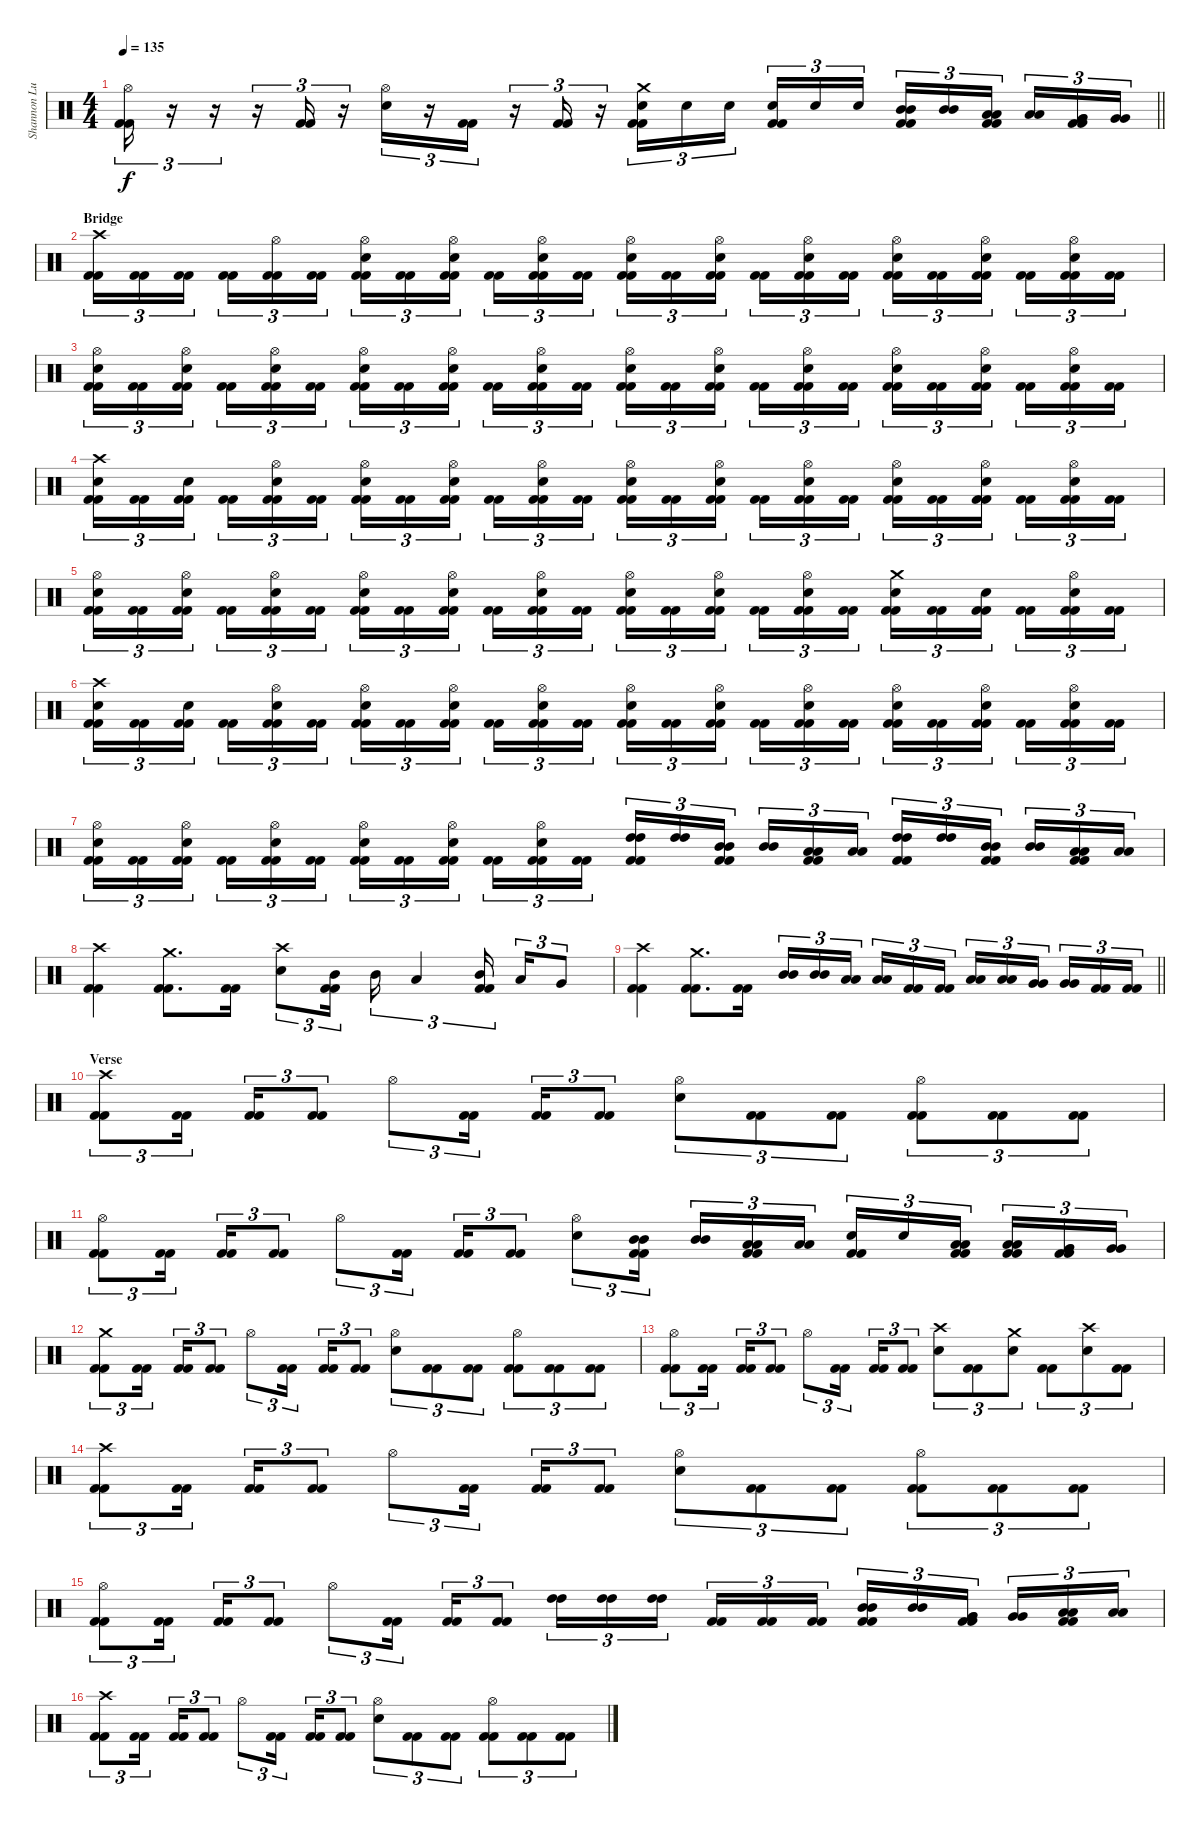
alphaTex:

\track ("Shannon Lucas" "Shannon Lu") {instrument percussion}
\staff {score}
\articulation defaults
\ts (4 4)
\tempo 135
\clef neutral
\barLineRight lightlight
\ks c
("Hi-Hat (open)" "Kick (hit) 2" "Kick (hit) 2").16{tu (3 2) dy f} r.16{tu (3 2)} r.16{tu (3 2)} r.16{tu (3 2)} ("Kick (hit) 2" "Kick (hit) 2").16{tu (3 2)} r.16{tu (3 2)} ("Hi-Hat (open)" "Electric Snare (hit)").16{tu (3 2)} r.16{tu (3 2)} ("Kick (hit) 2" "Kick (hit) 2").16{tu (3 2)} r.16{tu (3 2)} ("Kick (hit) 2" "Kick (hit) 2").16{tu (3 2)} r.16{tu (3 2)} ("Crash medium (hit)" "Electric Snare (hit)" "Kick (hit) 2" "Kick (hit) 2").16{tu (3 2)} "Electric Snare (hit)".16{tu (3 2)} "Electric Snare (hit)".16{tu (3 2) beam splitsecondary} ("Electric Snare (hit)" "Kick (hit) 2" "Kick (hit) 2").16{tu (3 2)} "Electric Snare (hit)".16{tu (3 2)} "Electric Snare (hit)".16{tu (3 2)} ("Mid Tom (hit)" "Mid Tom (hit)" "Kick (hit) 2" "Kick (hit) 2").16{tu (3 2)} ("Mid Tom (hit)" "Mid Tom (hit)").16{tu (3 2)} ("Low Tom (hit)" "Low Tom (hit)" "Kick (hit) 2" "Kick (hit) 2").16{tu (3 2) beam splitsecondary} ("Low Tom (hit)" "Low Tom (hit)").16{tu (3 2)} ("Very Low Tom (hit)" "Very Low Tom (hit)" "Kick (hit) 2" "Kick (hit) 2").16{tu (3 2)} ("Very Low Tom (hit)" "Very Low Tom (hit)").16{tu (3 2)} |
\section ("" "Bridge")
("Crash high (hit)" "Kick (hit) 2" "Kick (hit) 2").16{tu (3 2)} ("Kick (hit) 2" "Kick (hit) 2").16{tu (3 2)} ("Kick (hit) 2" "Kick (hit) 2").16{tu (3 2) beam splitsecondary} ("Kick (hit) 2" "Kick (hit) 2").16{tu (3 2)} ("Hi-Hat (open)" "Kick (hit) 2" "Kick (hit) 2").16{tu (3 2)} ("Kick (hit) 2" "Kick (hit) 2").16{tu (3 2)} ("Hi-Hat (open)" "Electric Snare (hit)" "Kick (hit) 2" "Kick (hit) 2").16{tu (3 2)} ("Kick (hit) 2" "Kick (hit) 2").16{tu (3 2)} ("Hi-Hat (open)" "Electric Snare (hit)" "Kick (hit) 2" "Kick (hit) 2").16{tu (3 2) beam splitsecondary} ("Kick (hit) 2" "Kick (hit) 2").16{tu (3 2)} ("Hi-Hat (open)" "Electric Snare (hit)" "Kick (hit) 2" "Kick (hit) 2").16{tu (3 2)} ("Kick (hit) 2" "Kick (hit) 2").16{tu (3 2)} ("Hi-Hat (open)" "Electric Snare (hit)" "Kick (hit) 2" "Kick (hit) 2").16{tu (3 2)} ("Kick (hit) 2" "Kick (hit) 2").16{tu (3 2)} ("Hi-Hat (open)" "Electric Snare (hit)" "Kick (hit) 2" "Kick (hit) 2").16{tu (3 2) beam splitsecondary} ("Kick (hit) 2" "Kick (hit) 2").16{tu (3 2)} ("Hi-Hat (open)" "Electric Snare (hit)" "Kick (hit) 2" "Kick (hit) 2").16{tu (3 2)} ("Kick (hit) 2" "Kick (hit) 2").16{tu (3 2)} ("Hi-Hat (open)" "Electric Snare (hit)" "Kick (hit) 2" "Kick (hit) 2").16{tu (3 2)} ("Kick (hit) 2" "Kick (hit) 2").16{tu (3 2)} ("Hi-Hat (open)" "Electric Snare (hit)" "Kick (hit) 2" "Kick (hit) 2").16{tu (3 2) beam splitsecondary} ("Kick (hit) 2" "Kick (hit) 2").16{tu (3 2)} ("Hi-Hat (open)" "Electric Snare (hit)" "Kick (hit) 2" "Kick (hit) 2").16{tu (3 2)} ("Kick (hit) 2" "Kick (hit) 2").16{tu (3 2)} |
("Hi-Hat (open)" "Electric Snare (hit)" "Kick (hit) 2" "Kick (hit) 2").16{tu (3 2)} ("Kick (hit) 2" "Kick (hit) 2").16{tu (3 2)} ("Hi-Hat (open)" "Electric Snare (hit)" "Kick (hit) 2" "Kick (hit) 2").16{tu (3 2) beam splitsecondary} ("Kick (hit) 2" "Kick (hit) 2").16{tu (3 2)} ("Hi-Hat (open)" "Electric Snare (hit)" "Kick (hit) 2" "Kick (hit) 2").16{tu (3 2)} ("Kick (hit) 2" "Kick (hit) 2").16{tu (3 2)} ("Hi-Hat (open)" "Electric Snare (hit)" "Kick (hit) 2" "Kick (hit) 2").16{tu (3 2)} ("Kick (hit) 2" "Kick (hit) 2").16{tu (3 2)} ("Hi-Hat (open)" "Electric Snare (hit)" "Kick (hit) 2" "Kick (hit) 2").16{tu (3 2) beam splitsecondary} ("Kick (hit) 2" "Kick (hit) 2").16{tu (3 2)} ("Hi-Hat (open)" "Electric Snare (hit)" "Kick (hit) 2" "Kick (hit) 2").16{tu (3 2)} ("Kick (hit) 2" "Kick (hit) 2").16{tu (3 2)} ("Hi-Hat (open)" "Electric Snare (hit)" "Kick (hit) 2" "Kick (hit) 2").16{tu (3 2)} ("Kick (hit) 2" "Kick (hit) 2").16{tu (3 2)} ("Hi-Hat (open)" "Electric Snare (hit)" "Kick (hit) 2" "Kick (hit) 2").16{tu (3 2) beam splitsecondary} ("Kick (hit) 2" "Kick (hit) 2").16{tu (3 2)} ("Hi-Hat (open)" "Electric Snare (hit)" "Kick (hit) 2" "Kick (hit) 2").16{tu (3 2)} ("Kick (hit) 2" "Kick (hit) 2").16{tu (3 2)} ("Hi-Hat (open)" "Electric Snare (hit)" "Kick (hit) 2" "Kick (hit) 2").16{tu (3 2)} ("Kick (hit) 2" "Kick (hit) 2").16{tu (3 2)} ("Hi-Hat (open)" "Electric Snare (hit)" "Kick (hit) 2" "Kick (hit) 2").16{tu (3 2) beam splitsecondary} ("Kick (hit) 2" "Kick (hit) 2").16{tu (3 2)} ("Hi-Hat (open)" "Electric Snare (hit)" "Kick (hit) 2" "Kick (hit) 2").16{tu (3 2)} ("Kick (hit) 2" "Kick (hit) 2").16{tu (3 2)} |
("Crash high (hit)" "Electric Snare (hit)" "Kick (hit) 2" "Kick (hit) 2").16{tu (3 2)} ("Kick (hit) 2" "Kick (hit) 2").16{tu (3 2)} ("Electric Snare (hit)" "Kick (hit) 2" "Kick (hit) 2").16{tu (3 2) beam splitsecondary} ("Kick (hit) 2" "Kick (hit) 2").16{tu (3 2)} ("Hi-Hat (open)" "Electric Snare (hit)" "Kick (hit) 2" "Kick (hit) 2").16{tu (3 2)} ("Kick (hit) 2" "Kick (hit) 2").16{tu (3 2)} ("Hi-Hat (open)" "Electric Snare (hit)" "Kick (hit) 2" "Kick (hit) 2").16{tu (3 2)} ("Kick (hit) 2" "Kick (hit) 2").16{tu (3 2)} ("Hi-Hat (open)" "Electric Snare (hit)" "Kick (hit) 2" "Kick (hit) 2").16{tu (3 2) beam splitsecondary} ("Kick (hit) 2" "Kick (hit) 2").16{tu (3 2)} ("Hi-Hat (open)" "Electric Snare (hit)" "Kick (hit) 2" "Kick (hit) 2").16{tu (3 2)} ("Kick (hit) 2" "Kick (hit) 2").16{tu (3 2)} ("Hi-Hat (open)" "Electric Snare (hit)" "Kick (hit) 2" "Kick (hit) 2").16{tu (3 2)} ("Kick (hit) 2" "Kick (hit) 2").16{tu (3 2)} ("Hi-Hat (open)" "Electric Snare (hit)" "Kick (hit) 2" "Kick (hit) 2").16{tu (3 2) beam splitsecondary} ("Kick (hit) 2" "Kick (hit) 2").16{tu (3 2)} ("Hi-Hat (open)" "Electric Snare (hit)" "Kick (hit) 2" "Kick (hit) 2").16{tu (3 2)} ("Kick (hit) 2" "Kick (hit) 2").16{tu (3 2)} ("Hi-Hat (open)" "Electric Snare (hit)" "Kick (hit) 2" "Kick (hit) 2").16{tu (3 2)} ("Kick (hit) 2" "Kick (hit) 2").16{tu (3 2)} ("Hi-Hat (open)" "Electric Snare (hit)" "Kick (hit) 2" "Kick (hit) 2").16{tu (3 2) beam splitsecondary} ("Kick (hit) 2" "Kick (hit) 2").16{tu (3 2)} ("Hi-Hat (open)" "Electric Snare (hit)" "Kick (hit) 2" "Kick (hit) 2").16{tu (3 2)} ("Kick (hit) 2" "Kick (hit) 2").16{tu (3 2)} |
("Hi-Hat (open)" "Electric Snare (hit)" "Kick (hit) 2" "Kick (hit) 2").16{tu (3 2)} ("Kick (hit) 2" "Kick (hit) 2").16{tu (3 2)} ("Hi-Hat (open)" "Electric Snare (hit)" "Kick (hit) 2" "Kick (hit) 2").16{tu (3 2) beam splitsecondary} ("Kick (hit) 2" "Kick (hit) 2").16{tu (3 2)} ("Hi-Hat (open)" "Electric Snare (hit)" "Kick (hit) 2" "Kick (hit) 2").16{tu (3 2)} ("Kick (hit) 2" "Kick (hit) 2").16{tu (3 2)} ("Hi-Hat (open)" "Electric Snare (hit)" "Kick (hit) 2" "Kick (hit) 2").16{tu (3 2)} ("Kick (hit) 2" "Kick (hit) 2").16{tu (3 2)} ("Hi-Hat (open)" "Electric Snare (hit)" "Kick (hit) 2" "Kick (hit) 2").16{tu (3 2) beam splitsecondary} ("Kick (hit) 2" "Kick (hit) 2").16{tu (3 2)} ("Hi-Hat (open)" "Electric Snare (hit)" "Kick (hit) 2" "Kick (hit) 2").16{tu (3 2)} ("Kick (hit) 2" "Kick (hit) 2").16{tu (3 2)} ("Hi-Hat (open)" "Electric Snare (hit)" "Kick (hit) 2" "Kick (hit) 2").16{tu (3 2)} ("Kick (hit) 2" "Kick (hit) 2").16{tu (3 2)} ("Hi-Hat (open)" "Electric Snare (hit)" "Kick (hit) 2" "Kick (hit) 2").16{tu (3 2) beam splitsecondary} ("Kick (hit) 2" "Kick (hit) 2").16{tu (3 2)} ("Hi-Hat (open)" "Electric Snare (hit)" "Kick (hit) 2" "Kick (hit) 2").16{tu (3 2)} ("Kick (hit) 2" "Kick (hit) 2").16{tu (3 2)} ("Crash medium (hit)" "Electric Snare (hit)" "Kick (hit) 2" "Kick (hit) 2").16{tu (3 2)} ("Kick (hit) 2" "Kick (hit) 2").16{tu (3 2)} ("Electric Snare (hit)" "Kick (hit) 2" "Kick (hit) 2").16{tu (3 2) beam splitsecondary} ("Kick (hit) 2" "Kick (hit) 2").16{tu (3 2)} ("Hi-Hat (open)" "Electric Snare (hit)" "Kick (hit) 2" "Kick (hit) 2").16{tu (3 2)} ("Kick (hit) 2" "Kick (hit) 2").16{tu (3 2)} |
("Crash high (hit)" "Electric Snare (hit)" "Kick (hit) 2" "Kick (hit) 2").16{tu (3 2)} ("Kick (hit) 2" "Kick (hit) 2").16{tu (3 2)} ("Electric Snare (hit)" "Kick (hit) 2" "Kick (hit) 2").16{tu (3 2) beam splitsecondary} ("Kick (hit) 2" "Kick (hit) 2").16{tu (3 2)} ("Hi-Hat (open)" "Electric Snare (hit)" "Kick (hit) 2" "Kick (hit) 2").16{tu (3 2)} ("Kick (hit) 2" "Kick (hit) 2").16{tu (3 2)} ("Hi-Hat (open)" "Electric Snare (hit)" "Kick (hit) 2" "Kick (hit) 2").16{tu (3 2)} ("Kick (hit) 2" "Kick (hit) 2").16{tu (3 2)} ("Hi-Hat (open)" "Electric Snare (hit)" "Kick (hit) 2" "Kick (hit) 2").16{tu (3 2) beam splitsecondary} ("Kick (hit) 2" "Kick (hit) 2").16{tu (3 2)} ("Hi-Hat (open)" "Electric Snare (hit)" "Kick (hit) 2" "Kick (hit) 2").16{tu (3 2)} ("Kick (hit) 2" "Kick (hit) 2").16{tu (3 2)} ("Hi-Hat (open)" "Electric Snare (hit)" "Kick (hit) 2" "Kick (hit) 2").16{tu (3 2)} ("Kick (hit) 2" "Kick (hit) 2").16{tu (3 2)} ("Hi-Hat (open)" "Electric Snare (hit)" "Kick (hit) 2" "Kick (hit) 2").16{tu (3 2) beam splitsecondary} ("Kick (hit) 2" "Kick (hit) 2").16{tu (3 2)} ("Hi-Hat (open)" "Electric Snare (hit)" "Kick (hit) 2" "Kick (hit) 2").16{tu (3 2)} ("Kick (hit) 2" "Kick (hit) 2").16{tu (3 2)} ("Hi-Hat (open)" "Electric Snare (hit)" "Kick (hit) 2" "Kick (hit) 2").16{tu (3 2)} ("Kick (hit) 2" "Kick (hit) 2").16{tu (3 2)} ("Hi-Hat (open)" "Electric Snare (hit)" "Kick (hit) 2" "Kick (hit) 2").16{tu (3 2) beam splitsecondary} ("Kick (hit) 2" "Kick (hit) 2").16{tu (3 2)} ("Hi-Hat (open)" "Electric Snare (hit)" "Kick (hit) 2" "Kick (hit) 2").16{tu (3 2)} ("Kick (hit) 2" "Kick (hit) 2").16{tu (3 2)} |
("Hi-Hat (open)" "Electric Snare (hit)" "Kick (hit) 2" "Kick (hit) 2").16{tu (3 2)} ("Kick (hit) 2" "Kick (hit) 2").16{tu (3 2)} ("Hi-Hat (open)" "Electric Snare (hit)" "Kick (hit) 2" "Kick (hit) 2").16{tu (3 2) beam splitsecondary} ("Kick (hit) 2" "Kick (hit) 2").16{tu (3 2)} ("Hi-Hat (open)" "Electric Snare (hit)" "Kick (hit) 2" "Kick (hit) 2").16{tu (3 2)} ("Kick (hit) 2" "Kick (hit) 2").16{tu (3 2)} ("Hi-Hat (open)" "Electric Snare (hit)" "Kick (hit) 2" "Kick (hit) 2").16{tu (3 2)} ("Kick (hit) 2" "Kick (hit) 2").16{tu (3 2)} ("Hi-Hat (open)" "Electric Snare (hit)" "Kick (hit) 2" "Kick (hit) 2").16{tu (3 2) beam splitsecondary} ("Kick (hit) 2" "Kick (hit) 2").16{tu (3 2)} ("Hi-Hat (open)" "Electric Snare (hit)" "Kick (hit) 2" "Kick (hit) 2").16{tu (3 2)} ("Kick (hit) 2" "Kick (hit) 2").16{tu (3 2)} ("High Tom (hit)" "High Tom (hit)" "Kick (hit) 2" "Kick (hit) 2").16{tu (3 2)} ("High Tom (hit)" "High Tom (hit)").16{tu (3 2)} ("Mid Tom (hit)" "Mid Tom (hit)" "Kick (hit) 2" "Kick (hit) 2").16{tu (3 2) beam splitsecondary} ("Mid Tom (hit)" "Mid Tom (hit)").16{tu (3 2)} ("Low Tom (hit)" "Low Tom (hit)" "Kick (hit) 2" "Kick (hit) 2").16{tu (3 2)} ("Low Tom (hit)" "Low Tom (hit)").16{tu (3 2)} ("High Tom (hit)" "High Tom (hit)" "Kick (hit) 2" "Kick (hit) 2").16{tu (3 2)} ("High Tom (hit)" "High Tom (hit)").16{tu (3 2)} ("Mid Tom (hit)" "Mid Tom (hit)" "Kick (hit) 2" "Kick (hit) 2").16{tu (3 2) beam splitsecondary} ("Mid Tom (hit)" "Mid Tom (hit)").16{tu (3 2)} ("Low Tom (hit)" "Low Tom (hit)" "Kick (hit) 2" "Kick (hit) 2").16{tu (3 2)} ("Low Tom (hit)" "Low Tom (hit)").16{tu (3 2)} |
("Crash high (hit)" "Kick (hit) 2" "Kick (hit) 2").4 ("Crash medium (hit)" "Kick (hit) 2" "Kick (hit) 2").8{d} ("Kick (hit) 2" "Kick (hit) 2").16 ("Crash high (hit)" "Electric Snare (hit)").8{tu (3 2)} ("Mid Tom (hit)" "Kick (hit) 2" "Kick (hit) 2").16{tu (3 2)} "Mid Tom (hit)".16{tu (3 2)} "Low Tom (hit)".4{tu (3 2)} ("Mid Tom (hit)" "Kick (hit) 2" "Kick (hit) 2").16{tu (3 2) beam splitsecondary} "Low Tom (hit)".16{tu (3 2)} "Very Low Tom (hit)".8{tu (3 2)} |
\barLineRight lightlight
("Crash high (hit)" "Kick (hit) 2" "Kick (hit) 2").4 ("Crash medium (hit)" "Kick (hit) 2" "Kick (hit) 2").8{d} ("Kick (hit) 2" "Kick (hit) 2").16 ("Mid Tom (hit)" "Mid Tom (hit)").16{tu (3 2)} ("Mid Tom (hit)" "Mid Tom (hit)").16{tu (3 2)} ("Low Tom (hit)" "Low Tom (hit)").16{tu (3 2) beam splitsecondary} ("Low Tom (hit)" "Low Tom (hit)").16{tu (3 2)} ("Kick (hit) 2" "Kick (hit) 2").16{tu (3 2)} ("Kick (hit) 2" "Kick (hit) 2").16{tu (3 2)} ("Low Tom (hit)" "Low Tom (hit)").16{tu (3 2)} ("Low Tom (hit)" "Low Tom (hit)").16{tu (3 2)} ("Very Low Tom (hit)" "Very Low Tom (hit)").16{tu (3 2) beam splitsecondary} ("Very Low Tom (hit)" "Very Low Tom (hit)").16{tu (3 2)} ("Kick (hit) 2" "Kick (hit) 2").16{tu (3 2)} ("Kick (hit) 2" "Kick (hit) 2").16{tu (3 2)} |
\section ("" "Verse")
("Crash high (hit)" "Kick (hit) 2" "Kick (hit) 2").8{tu (3 2)} ("Kick (hit) 2" "Kick (hit) 2").16{tu (3 2) beam splitsecondary} ("Kick (hit) 2" "Kick (hit) 2").16{tu (3 2)} ("Kick (hit) 2" "Kick (hit) 2").8{tu (3 2)} "Hi-Hat (open)".8{tu (3 2)} ("Kick (hit) 2" "Kick (hit) 2").16{tu (3 2) beam splitsecondary} ("Kick (hit) 2" "Kick (hit) 2").16{tu (3 2)} ("Kick (hit) 2" "Kick (hit) 2").8{tu (3 2)} ("Hi-Hat (open)" "Electric Snare (hit)").8{tu (3 2)} ("Kick (hit) 2" "Kick (hit) 2").8{tu (3 2)} ("Kick (hit) 2" "Kick (hit) 2").8{tu (3 2)} ("Hi-Hat (open)" "Kick (hit) 2" "Kick (hit) 2").8{tu (3 2)} ("Kick (hit) 2" "Kick (hit) 2").8{tu (3 2)} ("Kick (hit) 2" "Kick (hit) 2").8{tu (3 2)} |
("Hi-Hat (open)" "Kick (hit) 2" "Kick (hit) 2").8{tu (3 2)} ("Kick (hit) 2" "Kick (hit) 2").16{tu (3 2) beam splitsecondary} ("Kick (hit) 2" "Kick (hit) 2").16{tu (3 2)} ("Kick (hit) 2" "Kick (hit) 2").8{tu (3 2)} "Hi-Hat (open)".8{tu (3 2)} ("Kick (hit) 2" "Kick (hit) 2").16{tu (3 2) beam splitsecondary} ("Kick (hit) 2" "Kick (hit) 2").16{tu (3 2)} ("Kick (hit) 2" "Kick (hit) 2").8{tu (3 2)} ("Hi-Hat (open)" "Electric Snare (hit)").8{tu (3 2)} ("Mid Tom (hit)" "Mid Tom (hit)" "Kick (hit) 2" "Kick (hit) 2").16{tu (3 2) beam splitsecondary} ("Mid Tom (hit)" "Mid Tom (hit)").16{tu (3 2)} ("Low Tom (hit)" "Low Tom (hit)" "Kick (hit) 2" "Kick (hit) 2").16{tu (3 2)} ("Low Tom (hit)" "Low Tom (hit)").16{tu (3 2)} ("Electric Snare (hit)" "Kick (hit) 2" "Kick (hit) 2").16{tu (3 2)} "Electric Snare (hit)".16{tu (3 2)} ("Low Tom (hit)" "Low Tom (hit)" "Kick (hit) 2" "Kick (hit) 2").16{tu (3 2) beam splitsecondary} ("Low Tom (hit)" "Low Tom (hit)" "Kick (hit) 2" "Kick (hit) 2").16{tu (3 2)} ("Very Low Tom (hit)" "Very Low Tom (hit)" "Kick (hit) 2" "Kick (hit) 2").16{tu (3 2)} ("Very Low Tom (hit)" "Very Low Tom (hit)").16{tu (3 2)} |
("Crash medium (hit)" "Kick (hit) 2" "Kick (hit) 2").8{tu (3 2)} ("Kick (hit) 2" "Kick (hit) 2").16{tu (3 2) beam splitsecondary} ("Kick (hit) 2" "Kick (hit) 2").16{tu (3 2)} ("Kick (hit) 2" "Kick (hit) 2").8{tu (3 2)} "Hi-Hat (open)".8{tu (3 2)} ("Kick (hit) 2" "Kick (hit) 2").16{tu (3 2) beam splitsecondary} ("Kick (hit) 2" "Kick (hit) 2").16{tu (3 2)} ("Kick (hit) 2" "Kick (hit) 2").8{tu (3 2)} ("Hi-Hat (open)" "Electric Snare (hit)").8{tu (3 2)} ("Kick (hit) 2" "Kick (hit) 2").8{tu (3 2)} ("Kick (hit) 2" "Kick (hit) 2").8{tu (3 2)} ("Hi-Hat (open)" "Kick (hit) 2" "Kick (hit) 2").8{tu (3 2)} ("Kick (hit) 2" "Kick (hit) 2").8{tu (3 2)} ("Kick (hit) 2" "Kick (hit) 2").8{tu (3 2)} |
("Hi-Hat (open)" "Kick (hit) 2" "Kick (hit) 2").8{tu (3 2)} ("Kick (hit) 2" "Kick (hit) 2").16{tu (3 2) beam splitsecondary} ("Kick (hit) 2" "Kick (hit) 2").16{tu (3 2)} ("Kick (hit) 2" "Kick (hit) 2").8{tu (3 2)} "Hi-Hat (open)".8{tu (3 2)} ("Kick (hit) 2" "Kick (hit) 2").16{tu (3 2) beam splitsecondary} ("Kick (hit) 2" "Kick (hit) 2").16{tu (3 2)} ("Kick (hit) 2" "Kick (hit) 2").8{tu (3 2)} ("Crash high (hit)" "Electric Snare (hit)").8{tu (3 2)} ("Kick (hit) 2" "Kick (hit) 2").8{tu (3 2)} ("Crash medium (hit)" "Electric Snare (hit)").8{tu (3 2)} ("Kick (hit) 2" "Kick (hit) 2").8{tu (3 2)} ("Crash high (hit)" "Electric Snare (hit)").8{tu (3 2)} ("Kick (hit) 2" "Kick (hit) 2").8{tu (3 2)} |
("Crash high (hit)" "Kick (hit) 2" "Kick (hit) 2").8{tu (3 2)} ("Kick (hit) 2" "Kick (hit) 2").16{tu (3 2) beam splitsecondary} ("Kick (hit) 2" "Kick (hit) 2").16{tu (3 2)} ("Kick (hit) 2" "Kick (hit) 2").8{tu (3 2)} "Hi-Hat (open)".8{tu (3 2)} ("Kick (hit) 2" "Kick (hit) 2").16{tu (3 2) beam splitsecondary} ("Kick (hit) 2" "Kick (hit) 2").16{tu (3 2)} ("Kick (hit) 2" "Kick (hit) 2").8{tu (3 2)} ("Hi-Hat (open)" "Electric Snare (hit)").8{tu (3 2)} ("Kick (hit) 2" "Kick (hit) 2").8{tu (3 2)} ("Kick (hit) 2" "Kick (hit) 2").8{tu (3 2)} ("Hi-Hat (open)" "Kick (hit) 2" "Kick (hit) 2").8{tu (3 2)} ("Kick (hit) 2" "Kick (hit) 2").8{tu (3 2)} ("Kick (hit) 2" "Kick (hit) 2").8{tu (3 2)} |
("Hi-Hat (open)" "Kick (hit) 2" "Kick (hit) 2").8{tu (3 2)} ("Kick (hit) 2" "Kick (hit) 2").16{tu (3 2) beam splitsecondary} ("Kick (hit) 2" "Kick (hit) 2").16{tu (3 2)} ("Kick (hit) 2" "Kick (hit) 2").8{tu (3 2)} "Hi-Hat (open)".8{tu (3 2)} ("Kick (hit) 2" "Kick (hit) 2").16{tu (3 2) beam splitsecondary} ("Kick (hit) 2" "Kick (hit) 2").16{tu (3 2)} ("Kick (hit) 2" "Kick (hit) 2").8{tu (3 2)} ("High Tom (hit)" "High Tom (hit)").16{tu (3 2)} ("High Tom (hit)" "High Tom (hit)").16{tu (3 2)} ("High Tom (hit)" "High Tom (hit)").16{tu (3 2) beam splitsecondary} ("Kick (hit) 2" "Kick (hit) 2").16{tu (3 2)} ("Kick (hit) 2" "Kick (hit) 2").16{tu (3 2)} ("Kick (hit) 2" "Kick (hit) 2").16{tu (3 2)} ("Mid Tom (hit)" "Mid Tom (hit)" "Kick (hit) 2" "Kick (hit) 2").16{tu (3 2)} ("Mid Tom (hit)" "Mid Tom (hit)").16{tu (3 2)} ("Very Low Tom (hit)" "Very Low Tom (hit)" "Kick (hit) 2" "Kick (hit) 2").16{tu (3 2) beam splitsecondary} ("Very Low Tom (hit)" "Very Low Tom (hit)").16{tu (3 2)} ("Low Floor Tom (hit)" "Low Floor Tom (hit)" "Kick (hit) 2" "Kick (hit) 2").16{tu (3 2)} ("Low Floor Tom (hit)" "Low Floor Tom (hit)").16{tu (3 2)} |
("Crash high (hit)" "Kick (hit) 2" "Kick (hit) 2").8{tu (3 2)} ("Kick (hit) 2" "Kick (hit) 2").16{tu (3 2) beam splitsecondary} ("Kick (hit) 2" "Kick (hit) 2").16{tu (3 2)} ("Kick (hit) 2" "Kick (hit) 2").8{tu (3 2)} "Hi-Hat (open)".8{tu (3 2)} ("Kick (hit) 2" "Kick (hit) 2").16{tu (3 2) beam splitsecondary} ("Kick (hit) 2" "Kick (hit) 2").16{tu (3 2)} ("Kick (hit) 2" "Kick (hit) 2").8{tu (3 2)} ("Hi-Hat (open)" "Electric Snare (hit)").8{tu (3 2)} ("Kick (hit) 2" "Kick (hit) 2").8{tu (3 2)} ("Kick (hit) 2" "Kick (hit) 2").8{tu (3 2)} ("Hi-Hat (open)" "Kick (hit) 2" "Kick (hit) 2").8{tu (3 2)} ("Kick (hit) 2" "Kick (hit) 2").8{tu (3 2)} ("Kick (hit) 2" "Kick (hit) 2").8{tu (3 2)}
